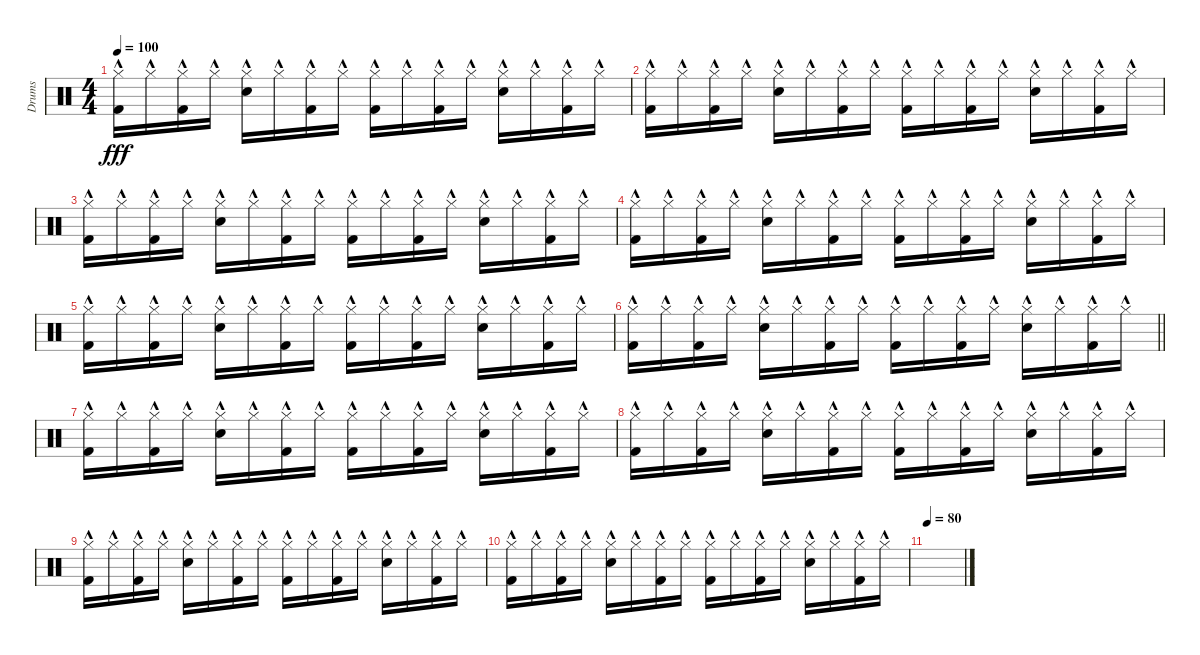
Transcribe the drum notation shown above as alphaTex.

\track ("Drums" "Drums") {instrument percussion}
\staff {score}
\articulation defaults
\ts (4 4)
\tempo 100
\clef neutral
\ks c
("Hi-Hat (closed)"{hac} "Kick (hit) 2").16{dy fff} "Hi-Hat (closed)"{hac}.16 ("Hi-Hat (closed)"{hac} "Kick (hit) 2").16 "Hi-Hat (closed)"{hac}.16 ("Hi-Hat (closed)"{hac} "Electric Snare (hit)"{hac}).16 "Hi-Hat (closed)"{hac}.16 ("Hi-Hat (closed)"{hac} "Kick (hit) 2").16 "Hi-Hat (closed)"{hac}.16 ("Hi-Hat (closed)"{hac} "Kick (hit) 2").16 "Hi-Hat (closed)"{hac}.16 ("Hi-Hat (closed)"{hac} "Kick (hit) 2").16 "Hi-Hat (closed)"{hac}.16 ("Hi-Hat (closed)"{hac} "Electric Snare (hit)"{hac}).16 "Hi-Hat (closed)"{hac}.16 ("Hi-Hat (closed)"{hac} "Kick (hit) 2").16 "Hi-Hat (closed)"{hac}.16 |
("Hi-Hat (closed)"{hac} "Kick (hit) 2").16 "Hi-Hat (closed)"{hac}.16 ("Hi-Hat (closed)"{hac} "Kick (hit) 2").16 "Hi-Hat (closed)"{hac}.16 ("Hi-Hat (closed)"{hac} "Electric Snare (hit)"{hac}).16 "Hi-Hat (closed)"{hac}.16 ("Hi-Hat (closed)"{hac} "Kick (hit) 2").16 "Hi-Hat (closed)"{hac}.16 ("Hi-Hat (closed)"{hac} "Kick (hit) 2").16 "Hi-Hat (closed)"{hac}.16 ("Hi-Hat (closed)"{hac} "Kick (hit) 2").16 "Hi-Hat (closed)"{hac}.16 ("Hi-Hat (closed)"{hac} "Electric Snare (hit)"{hac}).16 "Hi-Hat (closed)"{hac}.16 ("Hi-Hat (closed)"{hac} "Kick (hit) 2").16 "Hi-Hat (closed)"{hac}.16 |
("Hi-Hat (closed)"{hac} "Kick (hit) 2").16 "Hi-Hat (closed)"{hac}.16 ("Hi-Hat (closed)"{hac} "Kick (hit) 2").16 "Hi-Hat (closed)"{hac}.16 ("Hi-Hat (closed)"{hac} "Electric Snare (hit)"{hac}).16 "Hi-Hat (closed)"{hac}.16 ("Hi-Hat (closed)"{hac} "Kick (hit) 2").16 "Hi-Hat (closed)"{hac}.16 ("Hi-Hat (closed)"{hac} "Kick (hit) 2").16 "Hi-Hat (closed)"{hac}.16 ("Hi-Hat (closed)"{hac} "Kick (hit) 2").16 "Hi-Hat (closed)"{hac}.16 ("Hi-Hat (closed)"{hac} "Electric Snare (hit)"{hac}).16 "Hi-Hat (closed)"{hac}.16 ("Hi-Hat (closed)"{hac} "Kick (hit) 2").16 "Hi-Hat (closed)"{hac}.16 |
("Hi-Hat (closed)"{hac} "Kick (hit) 2").16 "Hi-Hat (closed)"{hac}.16 ("Hi-Hat (closed)"{hac} "Kick (hit) 2").16 "Hi-Hat (closed)"{hac}.16 ("Hi-Hat (closed)"{hac} "Electric Snare (hit)"{hac}).16 "Hi-Hat (closed)"{hac}.16 ("Hi-Hat (closed)"{hac} "Kick (hit) 2").16 "Hi-Hat (closed)"{hac}.16 ("Hi-Hat (closed)"{hac} "Kick (hit) 2").16 "Hi-Hat (closed)"{hac}.16 ("Hi-Hat (closed)"{hac} "Kick (hit) 2").16 "Hi-Hat (closed)"{hac}.16 ("Hi-Hat (closed)"{hac} "Electric Snare (hit)"{hac}).16 "Hi-Hat (closed)"{hac}.16 ("Hi-Hat (closed)"{hac} "Kick (hit) 2").16 "Hi-Hat (closed)"{hac}.16 |
("Hi-Hat (closed)"{hac} "Kick (hit) 2").16 "Hi-Hat (closed)"{hac}.16 ("Hi-Hat (closed)"{hac} "Kick (hit) 2").16 "Hi-Hat (closed)"{hac}.16 ("Hi-Hat (closed)"{hac} "Electric Snare (hit)"{hac}).16 "Hi-Hat (closed)"{hac}.16 ("Hi-Hat (closed)"{hac} "Kick (hit) 2").16 "Hi-Hat (closed)"{hac}.16 ("Hi-Hat (closed)"{hac} "Kick (hit) 2").16 "Hi-Hat (closed)"{hac}.16 ("Hi-Hat (closed)"{hac} "Kick (hit) 2").16 "Hi-Hat (closed)"{hac}.16 ("Hi-Hat (closed)"{hac} "Electric Snare (hit)"{hac}).16 "Hi-Hat (closed)"{hac}.16 ("Hi-Hat (closed)"{hac} "Kick (hit) 2").16 "Hi-Hat (closed)"{hac}.16 |
\barLineRight lightlight
("Hi-Hat (closed)"{hac} "Kick (hit) 2").16 "Hi-Hat (closed)"{hac}.16 ("Hi-Hat (closed)"{hac} "Kick (hit) 2").16 "Hi-Hat (closed)"{hac}.16 ("Hi-Hat (closed)"{hac} "Electric Snare (hit)"{hac}).16 "Hi-Hat (closed)"{hac}.16 ("Hi-Hat (closed)"{hac} "Kick (hit) 2").16 "Hi-Hat (closed)"{hac}.16 ("Hi-Hat (closed)"{hac} "Kick (hit) 2").16 "Hi-Hat (closed)"{hac}.16 ("Hi-Hat (closed)"{hac} "Kick (hit) 2").16 "Hi-Hat (closed)"{hac}.16 ("Hi-Hat (closed)"{hac} "Electric Snare (hit)"{hac}).16 "Hi-Hat (closed)"{hac}.16 ("Hi-Hat (closed)"{hac} "Kick (hit) 2").16 "Hi-Hat (closed)"{hac}.16 |
("Hi-Hat (closed)"{hac} "Kick (hit) 2").16 "Hi-Hat (closed)"{hac}.16 ("Hi-Hat (closed)"{hac} "Kick (hit) 2").16 "Hi-Hat (closed)"{hac}.16 ("Hi-Hat (closed)"{hac} "Electric Snare (hit)"{hac}).16 "Hi-Hat (closed)"{hac}.16 ("Hi-Hat (closed)"{hac} "Kick (hit) 2").16 "Hi-Hat (closed)"{hac}.16 ("Hi-Hat (closed)"{hac} "Kick (hit) 2").16 "Hi-Hat (closed)"{hac}.16 ("Hi-Hat (closed)"{hac} "Kick (hit) 2").16 "Hi-Hat (closed)"{hac}.16 ("Hi-Hat (closed)"{hac} "Electric Snare (hit)"{hac}).16 "Hi-Hat (closed)"{hac}.16 ("Hi-Hat (closed)"{hac} "Kick (hit) 2").16 "Hi-Hat (closed)"{hac}.16 |
("Hi-Hat (closed)"{hac} "Kick (hit) 2").16 "Hi-Hat (closed)"{hac}.16 ("Hi-Hat (closed)"{hac} "Kick (hit) 2").16 "Hi-Hat (closed)"{hac}.16 ("Hi-Hat (closed)"{hac} "Electric Snare (hit)"{hac}).16 "Hi-Hat (closed)"{hac}.16 ("Hi-Hat (closed)"{hac} "Kick (hit) 2").16 "Hi-Hat (closed)"{hac}.16 ("Hi-Hat (closed)"{hac} "Kick (hit) 2").16 "Hi-Hat (closed)"{hac}.16 ("Hi-Hat (closed)"{hac} "Kick (hit) 2").16 "Hi-Hat (closed)"{hac}.16 ("Hi-Hat (closed)"{hac} "Electric Snare (hit)"{hac}).16 "Hi-Hat (closed)"{hac}.16 ("Hi-Hat (closed)"{hac} "Kick (hit) 2").16 "Hi-Hat (closed)"{hac}.16 |
("Hi-Hat (closed)"{hac} "Kick (hit) 2").16 "Hi-Hat (closed)"{hac}.16 ("Hi-Hat (closed)"{hac} "Kick (hit) 2").16 "Hi-Hat (closed)"{hac}.16 ("Hi-Hat (closed)"{hac} "Electric Snare (hit)"{hac}).16 "Hi-Hat (closed)"{hac}.16 ("Hi-Hat (closed)"{hac} "Kick (hit) 2").16 "Hi-Hat (closed)"{hac}.16 ("Hi-Hat (closed)"{hac} "Kick (hit) 2").16 "Hi-Hat (closed)"{hac}.16 ("Hi-Hat (closed)"{hac} "Kick (hit) 2").16 "Hi-Hat (closed)"{hac}.16 ("Hi-Hat (closed)"{hac} "Electric Snare (hit)"{hac}).16 "Hi-Hat (closed)"{hac}.16 ("Hi-Hat (closed)"{hac} "Kick (hit) 2").16 "Hi-Hat (closed)"{hac}.16 |
("Hi-Hat (closed)"{hac} "Kick (hit) 2").16 "Hi-Hat (closed)"{hac}.16 ("Hi-Hat (closed)"{hac} "Kick (hit) 2").16 "Hi-Hat (closed)"{hac}.16 ("Hi-Hat (closed)"{hac} "Electric Snare (hit)"{hac}).16 "Hi-Hat (closed)"{hac}.16 ("Hi-Hat (closed)"{hac} "Kick (hit) 2").16 "Hi-Hat (closed)"{hac}.16 ("Hi-Hat (closed)"{hac} "Kick (hit) 2").16 "Hi-Hat (closed)"{hac}.16 ("Hi-Hat (closed)"{hac} "Kick (hit) 2").16 "Hi-Hat (closed)"{hac}.16 ("Hi-Hat (closed)"{hac} "Electric Snare (hit)"{hac}).16 "Hi-Hat (closed)"{hac}.16 ("Hi-Hat (closed)"{hac} "Kick (hit) 2").16 "Hi-Hat (closed)"{hac}.16 |
\tempo 80
